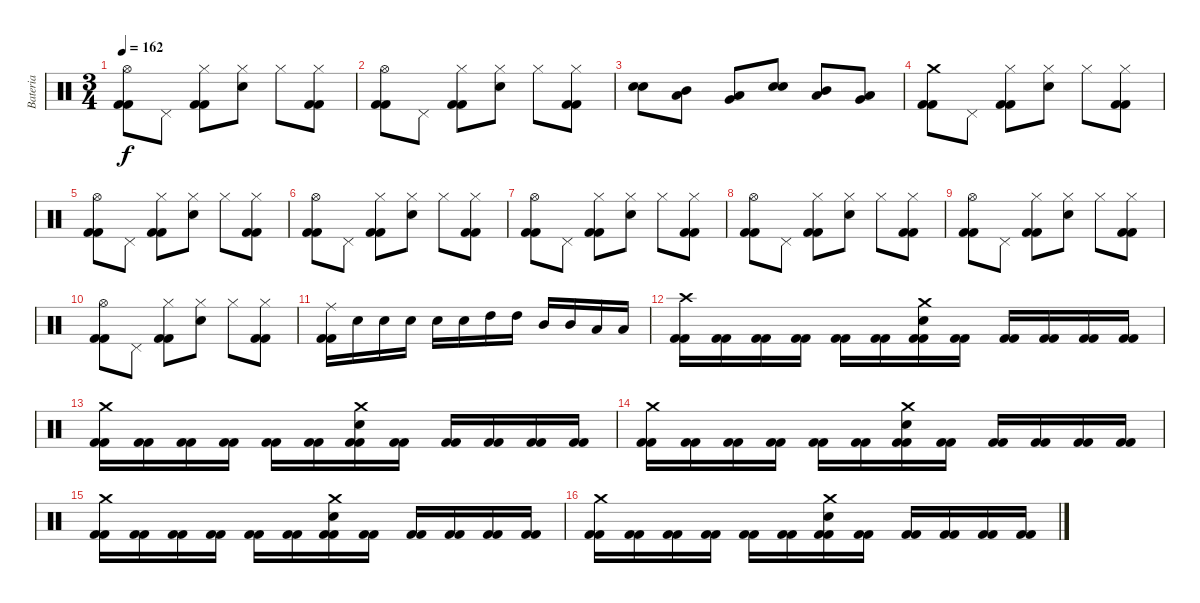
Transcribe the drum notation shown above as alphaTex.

\track ("Bateria" "Bateria") {instrument percussion}
\staff {score}
\articulation defaults
\ts (3 4)
\tempo 162
\clef neutral
\ks c
("Kick (hit) 2" "Hi-Hat (open)" "Kick (hit) 2").8{dy f} "Pedal Hi-Hat (hit)".8 ("Kick (hit) 2" "Hi-Hat (closed)" "Kick (hit) 2").8 ("Hi-Hat (closed)" "Electric Snare (hit)").8 "Hi-Hat (closed)".8 ("Kick (hit) 2" "Hi-Hat (closed)" "Kick (hit) 2").8 |
("Kick (hit) 2" "Hi-Hat (open)" "Kick (hit) 2").8 "Pedal Hi-Hat (hit)".8 ("Kick (hit) 2" "Hi-Hat (closed)" "Kick (hit) 2").8 ("Hi-Hat (closed)" "Electric Snare (hit)").8 "Hi-Hat (closed)".8 ("Kick (hit) 2" "Hi-Hat (closed)" "Kick (hit) 2").8 |
("Electric Snare (hit)" "Electric Snare (hit)").8 ("Low Tom (hit)" "Mid Tom (hit)").8 ("Very Low Tom (hit)" "Low Tom (hit)").8 ("Electric Snare (hit)" "Electric Snare (hit)").8 ("Low Tom (hit)" "Mid Tom (hit)").8 ("Very Low Tom (hit)" "Low Tom (hit)").8 |
("Kick (hit) 2" "Crash medium (hit)" "Kick (hit) 2").8 "Pedal Hi-Hat (hit)".8 ("Kick (hit) 2" "Hi-Hat (closed)" "Kick (hit) 2").8 ("Hi-Hat (closed)" "Electric Snare (hit)").8 "Hi-Hat (closed)".8 ("Kick (hit) 2" "Hi-Hat (closed)" "Kick (hit) 2").8 |
("Kick (hit) 2" "Hi-Hat (open)" "Kick (hit) 2").8 "Pedal Hi-Hat (hit)".8 ("Kick (hit) 2" "Hi-Hat (closed)" "Kick (hit) 2").8 ("Hi-Hat (closed)" "Electric Snare (hit)").8 "Hi-Hat (closed)".8 ("Kick (hit) 2" "Hi-Hat (closed)" "Kick (hit) 2").8 |
("Kick (hit) 2" "Hi-Hat (open)" "Kick (hit) 2").8 "Pedal Hi-Hat (hit)".8 ("Kick (hit) 2" "Hi-Hat (closed)" "Kick (hit) 2").8 ("Hi-Hat (closed)" "Electric Snare (hit)").8 "Hi-Hat (closed)".8 ("Kick (hit) 2" "Hi-Hat (closed)" "Kick (hit) 2").8 |
("Kick (hit) 2" "Hi-Hat (open)" "Kick (hit) 2").8 "Pedal Hi-Hat (hit)".8 ("Kick (hit) 2" "Hi-Hat (closed)" "Kick (hit) 2").8 ("Hi-Hat (closed)" "Electric Snare (hit)").8 "Hi-Hat (closed)".8 ("Kick (hit) 2" "Hi-Hat (closed)" "Kick (hit) 2").8 |
("Kick (hit) 2" "Hi-Hat (open)" "Kick (hit) 2").8 "Pedal Hi-Hat (hit)".8 ("Kick (hit) 2" "Hi-Hat (closed)" "Kick (hit) 2").8 ("Hi-Hat (closed)" "Electric Snare (hit)").8 "Hi-Hat (closed)".8 ("Kick (hit) 2" "Hi-Hat (closed)" "Kick (hit) 2").8 |
("Kick (hit) 2" "Hi-Hat (open)" "Kick (hit) 2").8 "Pedal Hi-Hat (hit)".8 ("Kick (hit) 2" "Hi-Hat (closed)" "Kick (hit) 2").8 ("Hi-Hat (closed)" "Electric Snare (hit)").8 "Hi-Hat (closed)".8 ("Kick (hit) 2" "Hi-Hat (closed)" "Kick (hit) 2").8 |
("Kick (hit) 2" "Hi-Hat (open)" "Kick (hit) 2").8 "Pedal Hi-Hat (hit)".8 ("Kick (hit) 2" "Hi-Hat (closed)" "Kick (hit) 2").8 ("Hi-Hat (closed)" "Electric Snare (hit)").8 "Hi-Hat (closed)".8 ("Kick (hit) 2" "Hi-Hat (closed)" "Kick (hit) 2").8 |
("Ride (middle)" "Kick (hit) 2" "Kick (hit) 2").16 "Electric Snare (hit)".16 "Electric Snare (hit)".16 "Electric Snare (hit)".16 "Electric Snare (hit)".16 "Electric Snare (hit)".16 "High Tom (hit)".16 "High Tom (hit)".16 "Mid Tom (hit)".16 "Mid Tom (hit)".16 "Low Tom (hit)".16 "Low Tom (hit)".16 |
("Crash high (hit)" "Kick (hit) 2" "Kick (hit) 2").16 ("Kick (hit) 2" "Kick (hit) 2").16 ("Kick (hit) 2" "Kick (hit) 2").16 ("Kick (hit) 2" "Kick (hit) 2").16 ("Kick (hit) 2" "Kick (hit) 2").16 ("Kick (hit) 2" "Kick (hit) 2").16 ("Crash medium (hit)" "Electric Snare (hit)" "Kick (hit) 2" "Kick (hit) 2").16 ("Kick (hit) 2" "Kick (hit) 2").16 ("Kick (hit) 2" "Kick (hit) 2").16 ("Kick (hit) 2" "Kick (hit) 2").16 ("Kick (hit) 2" "Kick (hit) 2").16 ("Kick (hit) 2" "Kick (hit) 2").16 |
("Crash medium (hit)" "Kick (hit) 2" "Kick (hit) 2").16 ("Kick (hit) 2" "Kick (hit) 2").16 ("Kick (hit) 2" "Kick (hit) 2").16 ("Kick (hit) 2" "Kick (hit) 2").16 ("Kick (hit) 2" "Kick (hit) 2").16 ("Kick (hit) 2" "Kick (hit) 2").16 ("Crash medium (hit)" "Electric Snare (hit)" "Kick (hit) 2" "Kick (hit) 2").16 ("Kick (hit) 2" "Kick (hit) 2").16 ("Kick (hit) 2" "Kick (hit) 2").16 ("Kick (hit) 2" "Kick (hit) 2").16 ("Kick (hit) 2" "Kick (hit) 2").16 ("Kick (hit) 2" "Kick (hit) 2").16 |
("Crash medium (hit)" "Kick (hit) 2" "Kick (hit) 2").16 ("Kick (hit) 2" "Kick (hit) 2").16 ("Kick (hit) 2" "Kick (hit) 2").16 ("Kick (hit) 2" "Kick (hit) 2").16 ("Kick (hit) 2" "Kick (hit) 2").16 ("Kick (hit) 2" "Kick (hit) 2").16 ("Crash medium (hit)" "Electric Snare (hit)" "Kick (hit) 2" "Kick (hit) 2").16 ("Kick (hit) 2" "Kick (hit) 2").16 ("Kick (hit) 2" "Kick (hit) 2").16 ("Kick (hit) 2" "Kick (hit) 2").16 ("Kick (hit) 2" "Kick (hit) 2").16 ("Kick (hit) 2" "Kick (hit) 2").16 |
("Crash medium (hit)" "Kick (hit) 2" "Kick (hit) 2").16 ("Kick (hit) 2" "Kick (hit) 2").16 ("Kick (hit) 2" "Kick (hit) 2").16 ("Kick (hit) 2" "Kick (hit) 2").16 ("Kick (hit) 2" "Kick (hit) 2").16 ("Kick (hit) 2" "Kick (hit) 2").16 ("Crash medium (hit)" "Electric Snare (hit)" "Kick (hit) 2" "Kick (hit) 2").16 ("Kick (hit) 2" "Kick (hit) 2").16 ("Kick (hit) 2" "Kick (hit) 2").16 ("Kick (hit) 2" "Kick (hit) 2").16 ("Kick (hit) 2" "Kick (hit) 2").16 ("Kick (hit) 2" "Kick (hit) 2").16 |
("Crash medium (hit)" "Kick (hit) 2" "Kick (hit) 2").16 ("Kick (hit) 2" "Kick (hit) 2").16 ("Kick (hit) 2" "Kick (hit) 2").16 ("Kick (hit) 2" "Kick (hit) 2").16 ("Kick (hit) 2" "Kick (hit) 2").16 ("Kick (hit) 2" "Kick (hit) 2").16 ("Crash medium (hit)" "Electric Snare (hit)" "Kick (hit) 2" "Kick (hit) 2").16 ("Kick (hit) 2" "Kick (hit) 2").16 ("Kick (hit) 2" "Kick (hit) 2").16 ("Kick (hit) 2" "Kick (hit) 2").16 ("Kick (hit) 2" "Kick (hit) 2").16 ("Kick (hit) 2" "Kick (hit) 2").16
